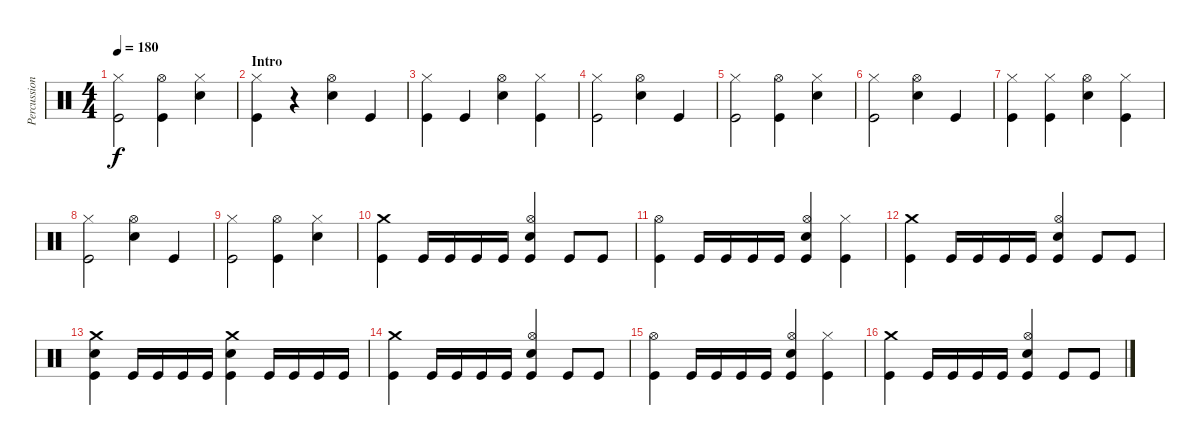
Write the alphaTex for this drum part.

\track ("Percussion" "Percussion") {instrument percussion}
\staff {score}
\articulation defaults
\ts (4 4)
\tempo 180
\clef neutral
\ks c
("Hi-Hat (closed)" "Kick (hit)").2{dy f} ("Hi-Hat (open)" "Kick (hit)").4 ("Hi-Hat (closed)" "Snare (hit) 2").4 |
\section ("" "Intro")
("Hi-Hat (closed)" "Kick (hit)").4 r.4 ("Hi-Hat (open)" "Snare (hit) 2").4 "Kick (hit)".4 |
("Hi-Hat (closed)" "Kick (hit)").4 "Kick (hit)".4 ("Hi-Hat (open)" "Snare (hit) 2").4 ("Hi-Hat (closed)" "Kick (hit)").4 |
("Hi-Hat (closed)" "Kick (hit)").2 ("Hi-Hat (open)" "Snare (hit) 2").4 "Kick (hit)".4 |
("Hi-Hat (closed)" "Kick (hit)").2 ("Hi-Hat (open)" "Kick (hit)").4 ("Hi-Hat (closed)" "Snare (hit) 2").4 |
("Hi-Hat (closed)" "Kick (hit)").2 ("Hi-Hat (open)" "Snare (hit) 2").4 "Kick (hit)".4 |
("Hi-Hat (closed)" "Kick (hit)").4 ("Hi-Hat (closed)" "Kick (hit)").4 ("Hi-Hat (open)" "Snare (hit) 2").4 ("Hi-Hat (closed)" "Kick (hit)").4 |
("Hi-Hat (closed)" "Kick (hit)").2 ("Hi-Hat (open)" "Snare (hit) 2").4 "Kick (hit)".4 |
("Hi-Hat (closed)" "Kick (hit)").2 ("Hi-Hat (open)" "Kick (hit)").4 ("Hi-Hat (closed)" "Snare (hit) 2").4 |
("Crash medium (hit)" "Kick (hit)").4 "Kick (hit)".16 "Kick (hit)".16 "Kick (hit)".16 "Kick (hit)".16 ("Hi-Hat (open)" "Snare (hit) 2" "Kick (hit)").4 "Kick (hit)".8 "Kick (hit)".8 |
("Hi-Hat (open)" "Kick (hit)").4 "Kick (hit)".16 "Kick (hit)".16 "Kick (hit)".16 "Kick (hit)".16 ("Hi-Hat (open)" "Snare (hit) 2" "Kick (hit)").4 ("Hi-Hat (closed)" "Kick (hit)").4 |
("Crash medium (hit)" "Kick (hit)").4 "Kick (hit)".16 "Kick (hit)".16 "Kick (hit)".16 "Kick (hit)".16 ("Hi-Hat (open)" "Snare (hit) 2" "Kick (hit)").4 "Kick (hit)".8 "Kick (hit)".8 |
("Crash medium (hit)" "Snare (hit) 2" "Kick (hit)").4 "Kick (hit)".16 "Kick (hit)".16 "Kick (hit)".16 "Kick (hit)".16 ("Crash medium (hit)" "Snare (hit) 2" "Kick (hit)").4 "Kick (hit)".16 "Kick (hit)".16 "Kick (hit)".16 "Kick (hit)".16 |
("Crash medium (hit)" "Kick (hit)").4 "Kick (hit)".16 "Kick (hit)".16 "Kick (hit)".16 "Kick (hit)".16 ("Hi-Hat (open)" "Snare (hit) 2" "Kick (hit)").4 "Kick (hit)".8 "Kick (hit)".8 |
("Hi-Hat (open)" "Kick (hit)").4 "Kick (hit)".16 "Kick (hit)".16 "Kick (hit)".16 "Kick (hit)".16 ("Hi-Hat (open)" "Snare (hit) 2" "Kick (hit)").4 ("Hi-Hat (closed)" "Kick (hit)").4 |
("Crash medium (hit)" "Kick (hit)").4 "Kick (hit)".16 "Kick (hit)".16 "Kick (hit)".16 "Kick (hit)".16 ("Hi-Hat (open)" "Snare (hit) 2" "Kick (hit)").4 "Kick (hit)".8 "Kick (hit)".8
